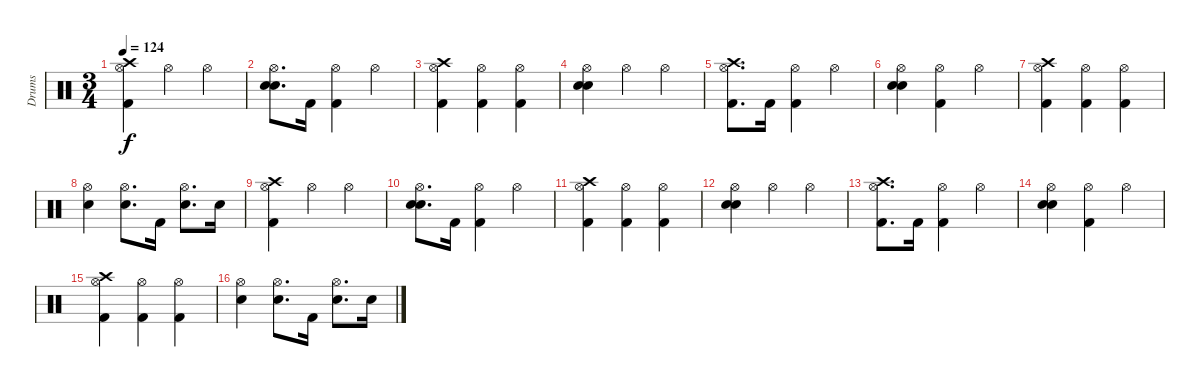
\track ("Drums" "Drums") {instrument percussion}
\staff {score}
\articulation defaults
\ts (3 4)
\tempo 124
\clef neutral
\ks c
("Kick (hit) 2" "Hi-Hat (open)" "Crash high (hit)").4{dy f} "Hi-Hat (open)".4 "Hi-Hat (open)".4 |
("Electric Snare (hit)" "Hi-Hat (open)" "Snare (hit) 2").8{d} "Kick (hit) 2".16 ("Kick (hit) 2" "Hi-Hat (open)").4 "Hi-Hat (open)".4 |
("Kick (hit) 2" "Hi-Hat (open)" "Crash high (hit)").4 ("Kick (hit) 2" "Hi-Hat (open)").4 ("Kick (hit) 2" "Hi-Hat (open)").4 |
("Electric Snare (hit)" "Hi-Hat (open)" "Snare (hit) 2").4 "Hi-Hat (open)".4 "Hi-Hat (open)".4 |
("Kick (hit) 2" "Hi-Hat (open)" "Crash high (hit)").8{d} "Kick (hit) 2".16 ("Kick (hit) 2" "Hi-Hat (open)").4 "Hi-Hat (open)".4 |
("Electric Snare (hit)" "Hi-Hat (open)" "Snare (hit) 2").4 ("Kick (hit) 2" "Hi-Hat (open)").4 "Hi-Hat (open)".4 |
("Kick (hit) 2" "Hi-Hat (open)" "Crash high (hit)").4 ("Kick (hit) 2" "Hi-Hat (open)").4 ("Kick (hit) 2" "Hi-Hat (open)").4 |
("Electric Snare (hit)" "Hi-Hat (open)").4 ("Electric Snare (hit)" "Hi-Hat (open)").8{d} "Kick (hit) 2".16 ("Electric Snare (hit)" "Hi-Hat (open)").8{d} "Electric Snare (hit)".16 |
("Kick (hit) 2" "Hi-Hat (open)" "Crash high (hit)").4 "Hi-Hat (open)".4 "Hi-Hat (open)".4 |
("Electric Snare (hit)" "Hi-Hat (open)" "Snare (hit) 2").8{d} "Kick (hit) 2".16 ("Kick (hit) 2" "Hi-Hat (open)").4 "Hi-Hat (open)".4 |
("Kick (hit) 2" "Hi-Hat (open)" "Crash high (hit)").4 ("Kick (hit) 2" "Hi-Hat (open)").4 ("Kick (hit) 2" "Hi-Hat (open)").4 |
("Electric Snare (hit)" "Hi-Hat (open)" "Snare (hit) 2").4 "Hi-Hat (open)".4 "Hi-Hat (open)".4 |
("Kick (hit) 2" "Hi-Hat (open)" "Crash high (hit)").8{d} "Kick (hit) 2".16 ("Kick (hit) 2" "Hi-Hat (open)").4 "Hi-Hat (open)".4 |
("Electric Snare (hit)" "Hi-Hat (open)" "Snare (hit) 2").4 ("Kick (hit) 2" "Hi-Hat (open)").4 "Hi-Hat (open)".4 |
("Kick (hit) 2" "Hi-Hat (open)" "Crash high (hit)").4 ("Kick (hit) 2" "Hi-Hat (open)").4 ("Kick (hit) 2" "Hi-Hat (open)").4 |
("Electric Snare (hit)" "Hi-Hat (open)").4 ("Electric Snare (hit)" "Hi-Hat (open)").8{d} "Kick (hit) 2".16 ("Electric Snare (hit)" "Hi-Hat (open)").8{d} "Electric Snare (hit)".16
